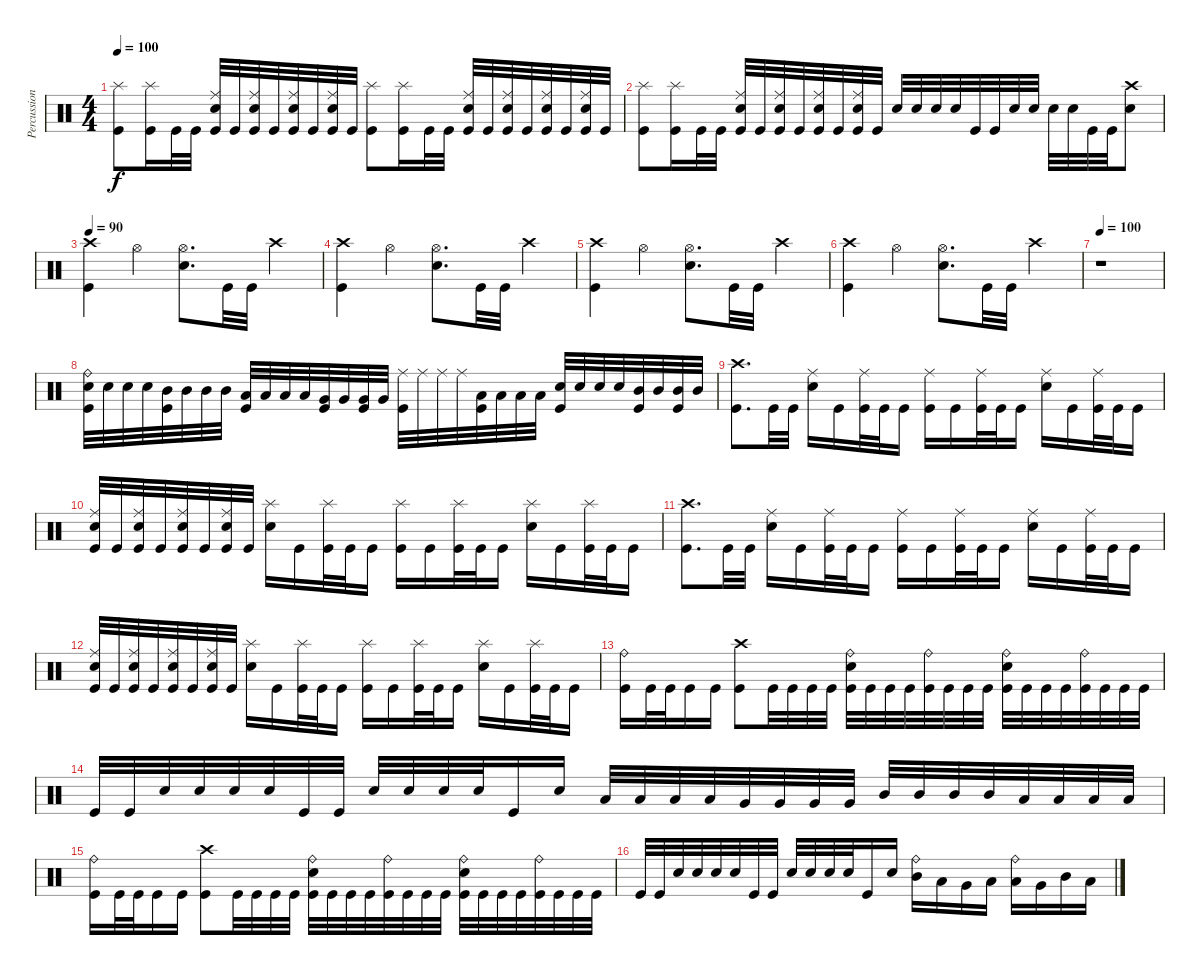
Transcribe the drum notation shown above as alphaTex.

\track ("Percussion" "Percussion") {instrument percussion}
\staff {score}
\articulation defaults
\ts (4 4)
\tempo 100
\clef neutral
\ks c
("Splash (hit)" "Kick (hit)").8{dy f} ("Splash (hit)" "Kick (hit)").16 "Kick (hit)".32 "Kick (hit)".32 ("Ride (middle)" "Electric Snare (hit)" "Kick (hit)").32 "Kick (hit)".32 ("Ride (middle)" "Electric Snare (hit)" "Kick (hit)").32 "Kick (hit)".32 ("Ride (middle)" "Electric Snare (hit)" "Kick (hit)").32 "Kick (hit)".32 ("Ride (middle)" "Electric Snare (hit)" "Kick (hit)").32 "Kick (hit)".32 ("Splash (hit)" "Kick (hit)").8 ("Splash (hit)" "Kick (hit)").16 "Kick (hit)".32 "Kick (hit)".32 ("Ride (middle)" "Electric Snare (hit)" "Kick (hit)").32 "Kick (hit)".32 ("Ride (middle)" "Electric Snare (hit)" "Kick (hit)").32 "Kick (hit)".32 ("Ride (middle)" "Electric Snare (hit)" "Kick (hit)").32 "Kick (hit)".32 ("Ride (middle)" "Electric Snare (hit)" "Kick (hit)").32 "Kick (hit)".32 |
("Splash (hit)" "Kick (hit)").8 ("Splash (hit)" "Kick (hit)").16 "Kick (hit)".32 "Kick (hit)".32 ("Ride (middle)" "Electric Snare (hit)" "Kick (hit)").32 "Kick (hit)".32 ("Ride (middle)" "Electric Snare (hit)" "Kick (hit)").32 "Kick (hit)".32 ("Ride (middle)" "Electric Snare (hit)" "Kick (hit)").32 "Kick (hit)".32 ("Ride (middle)" "Electric Snare (hit)" "Kick (hit)").32 "Kick (hit)".32 "Electric Snare (hit)".32 "Electric Snare (hit)".32 "Electric Snare (hit)".32 "Electric Snare (hit)".32 "Kick (hit)".32 "Kick (hit)".32 "Electric Snare (hit)".32 "Electric Snare (hit)".32 "Electric Snare (hit)".32 "Electric Snare (hit)".32 "Kick (hit)".32 "Kick (hit)".32 ("Crash high (hit)" "Electric Snare (hit)").8 |
\tempo 90
("Crash high (hit)" "Kick (hit)").4 "Hi-Hat (open)".4 ("Hi-Hat (open)" "Electric Snare (hit)").8{d} "Kick (hit)".32 "Kick (hit)".32 "Crash high (hit)".4 |
("Crash high (hit)" "Kick (hit)").4 "Hi-Hat (open)".4 ("Hi-Hat (open)" "Electric Snare (hit)").8{d} "Kick (hit)".32 "Kick (hit)".32 "Crash high (hit)".4 |
("Crash high (hit)" "Kick (hit)").4 "Hi-Hat (open)".4 ("Hi-Hat (open)" "Electric Snare (hit)").8{d} "Kick (hit)".32 "Kick (hit)".32 "Crash high (hit)".4 |
("Crash high (hit)" "Kick (hit)").4 "Hi-Hat (open)".4 ("Hi-Hat (open)" "Electric Snare (hit)").8{d} "Kick (hit)".32 "Kick (hit)".32 "Crash high (hit)".4 |
\tempo 100
r.1 |
("Ride (bell)" "Electric Snare (hit)" "Kick (hit)").32 "Electric Snare (hit)".32 "Electric Snare (hit)".32 "Electric Snare (hit)".32 ("Mid Tom (hit)" "Kick (hit)").32 "Mid Tom (hit)".32 "Mid Tom (hit)".32 "Mid Tom (hit)".32 ("Low Tom (hit)" "Kick (hit)").32 "Low Tom (hit)".32 "Low Tom (hit)".32 "Low Tom (hit)".32 ("Very Low Tom (hit)" "Kick (hit)").32 "Very Low Tom (hit)".32 ("Very Low Tom (hit)" "Kick (hit)").32 "Very Low Tom (hit)".32 ("Ride (middle)" "Kick (hit)").32 "Ride (middle)".32 "Ride (middle)".32 "Ride (middle)".32 ("Low Tom (hit)" "Kick (hit)").32 "Low Tom (hit)".32 "Low Tom (hit)".32 "Low Tom (hit)".32 ("Electric Snare (hit)" "Kick (hit)").32 "Electric Snare (hit)".32 "Electric Snare (hit)".32 "Electric Snare (hit)".32 ("Mid Tom (hit)" "Kick (hit)").32 "Mid Tom (hit)".32 ("Mid Tom (hit)" "Kick (hit)").32 "Mid Tom (hit)".32 |
("Crash high (hit)" "Kick (hit)").8{d} "Kick (hit)".32 "Kick (hit)".32 ("Ride (middle)" "Electric Snare (hit)").16 "Kick (hit)".16 ("Ride (middle)" "Kick (hit)").32 "Kick (hit)".32 "Kick (hit)".16 ("Ride (middle)" "Kick (hit)").16 "Kick (hit)".16 ("Ride (middle)" "Kick (hit)").32 "Kick (hit)".32 "Kick (hit)".16 ("Ride (middle)" "Electric Snare (hit)").16 "Kick (hit)".16 ("Ride (middle)" "Kick (hit)").32 "Kick (hit)".32 "Kick (hit)".16 |
("Ride (middle)" "Electric Snare (hit)" "Kick (hit)").32 "Kick (hit)".32 ("Ride (middle)" "Electric Snare (hit)" "Kick (hit)").32 "Kick (hit)".32 ("Ride (middle)" "Electric Snare (hit)" "Kick (hit)").32 "Kick (hit)".32 ("Ride (middle)" "Electric Snare (hit)" "Kick (hit)").32 "Kick (hit)".32 ("Splash (hit)" "Electric Snare (hit)").16 "Kick (hit)".16 ("Splash (hit)" "Kick (hit)").32 "Kick (hit)".32 "Kick (hit)".16 ("Splash (hit)" "Kick (hit)").16 "Kick (hit)".16 ("Splash (hit)" "Kick (hit)").32 "Kick (hit)".32 "Kick (hit)".16 ("Splash (hit)" "Electric Snare (hit)").16 "Kick (hit)".16 ("Splash (hit)" "Kick (hit)").32 "Kick (hit)".32 "Kick (hit)".16 |
("Crash high (hit)" "Kick (hit)").8{d} "Kick (hit)".32 "Kick (hit)".32 ("Ride (middle)" "Electric Snare (hit)").16 "Kick (hit)".16 ("Ride (middle)" "Kick (hit)").32 "Kick (hit)".32 "Kick (hit)".16 ("Ride (middle)" "Kick (hit)").16 "Kick (hit)".16 ("Ride (middle)" "Kick (hit)").32 "Kick (hit)".32 "Kick (hit)".16 ("Ride (middle)" "Electric Snare (hit)").16 "Kick (hit)".16 ("Ride (middle)" "Kick (hit)").32 "Kick (hit)".32 "Kick (hit)".16 |
("Ride (middle)" "Electric Snare (hit)" "Kick (hit)").32 "Kick (hit)".32 ("Ride (middle)" "Electric Snare (hit)" "Kick (hit)").32 "Kick (hit)".32 ("Ride (middle)" "Electric Snare (hit)" "Kick (hit)").32 "Kick (hit)".32 ("Ride (middle)" "Electric Snare (hit)" "Kick (hit)").32 "Kick (hit)".32 ("Splash (hit)" "Electric Snare (hit)").16 "Kick (hit)".16 ("Splash (hit)" "Kick (hit)").32 "Kick (hit)".32 "Kick (hit)".16 ("Splash (hit)" "Kick (hit)").16 "Kick (hit)".16 ("Splash (hit)" "Kick (hit)").32 "Kick (hit)".32 "Kick (hit)".16 ("Splash (hit)" "Electric Snare (hit)").16 "Kick (hit)".16 ("Splash (hit)" "Kick (hit)").32 "Kick (hit)".32 "Kick (hit)".16 |
("Ride (bell)" "Kick (hit)").16 "Kick (hit)".32 "Kick (hit)".32 "Kick (hit)".16 "Kick (hit)".16 ("Crash high (hit)" "Kick (hit)").8 "Kick (hit)".32 "Kick (hit)".32 "Kick (hit)".32 "Kick (hit)".32 ("Ride (bell)" "Electric Snare (hit)" "Kick (hit)").32 "Kick (hit)".32 "Kick (hit)".32 "Kick (hit)".32 ("Ride (bell)" "Kick (hit)").32 "Kick (hit)".32 "Kick (hit)".32 "Kick (hit)".32 ("Ride (bell)" "Electric Snare (hit)" "Kick (hit)").32 "Kick (hit)".32 "Kick (hit)".32 "Kick (hit)".32 ("Ride (bell)" "Kick (hit)").32 "Kick (hit)".32 "Kick (hit)".32 "Kick (hit)".32 |
"Kick (hit)".32 "Kick (hit)".32 "Electric Snare (hit)".32 "Electric Snare (hit)".32 "Electric Snare (hit)".32 "Electric Snare (hit)".32 "Kick (hit)".32 "Kick (hit)".32 "Electric Snare (hit)".32 "Electric Snare (hit)".32 "Electric Snare (hit)".32 "Electric Snare (hit)".32 "Kick (hit)".16 "Electric Snare (hit)".16 "Low Tom (hit)".32 "Low Tom (hit)".32 "Low Tom (hit)".32 "Low Tom (hit)".32 "Very Low Tom (hit)".32 "Very Low Tom (hit)".32 "Very Low Tom (hit)".32 "Very Low Tom (hit)".32 "Mid Tom (hit)".32 "Mid Tom (hit)".32 "Mid Tom (hit)".32 "Mid Tom (hit)".32 "Low Floor Tom (hit)".32 "Low Floor Tom (hit)".32 "Low Floor Tom (hit)".32 "Low Floor Tom (hit)".32 |
("Ride (bell)" "Kick (hit)").16 "Kick (hit)".32 "Kick (hit)".32 "Kick (hit)".16 "Kick (hit)".16 ("Crash high (hit)" "Kick (hit)").8 "Kick (hit)".32 "Kick (hit)".32 "Kick (hit)".32 "Kick (hit)".32 ("Ride (bell)" "Electric Snare (hit)" "Kick (hit)").32 "Kick (hit)".32 "Kick (hit)".32 "Kick (hit)".32 ("Ride (bell)" "Kick (hit)").32 "Kick (hit)".32 "Kick (hit)".32 "Kick (hit)".32 ("Ride (bell)" "Electric Snare (hit)" "Kick (hit)").32 "Kick (hit)".32 "Kick (hit)".32 "Kick (hit)".32 ("Ride (bell)" "Kick (hit)").32 "Kick (hit)".32 "Kick (hit)".32 "Kick (hit)".32 |
"Kick (hit)".32 "Kick (hit)".32 "Electric Snare (hit)".32 "Electric Snare (hit)".32 "Electric Snare (hit)".32 "Electric Snare (hit)".32 "Kick (hit)".32 "Kick (hit)".32 "Electric Snare (hit)".32 "Electric Snare (hit)".32 "Electric Snare (hit)".32 "Electric Snare (hit)".32 "Kick (hit)".16 "Electric Snare (hit)".16 ("Ride (bell)" "Mid Tom (hit)").16 "Low Tom (hit)".16 "Very Low Tom (hit)".16 "Low Floor Tom (hit)".16 ("Ride (bell)" "Low Tom (hit)").16 "Very Low Tom (hit)".16 "Mid Tom (hit)".16 "Low Floor Tom (hit)".16
